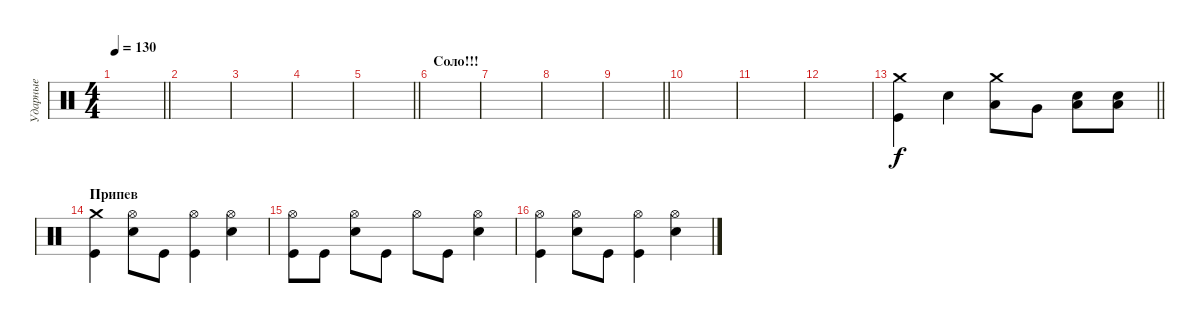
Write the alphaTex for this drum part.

\track ("Ударные" "Ударные") {instrument percussion}
\staff {score}
\articulation defaults
\ts (4 4)
\tempo 130
\clef neutral
\barLineRight lightlight
\ks c
|
|
|
|
\barLineRight lightlight
|
\section ("" "Соло!!!")
|
|
|
\barLineRight lightlight
|
|
|
|
\barLineRight lightlight
("Kick (hit)" "Crash medium (hit)").4 "Snare (hit) 2".4 ("Low Tom (hit)" "Crash medium (hit)").8 "Very Low Tom (hit)".8 ("Low Floor Tom (hit)" "Snare (hit) 2").8 ("Low Floor Tom (hit)" "Snare (hit) 2").8 |
\section ("" "Припев")
("Kick (hit)" "Crash medium (hit)").4 ("Snare (hit) 2" "Hi-Hat (open)").8 "Kick (hit)".8 ("Kick (hit)" "Hi-Hat (open)").4 ("Snare (hit) 2" "Hi-Hat (open)").4 |
("Kick (hit)" "Hi-Hat (open)").8 "Kick (hit)".8 ("Snare (hit) 2" "Hi-Hat (open)").8 "Kick (hit)".8 "Hi-Hat (open)".8 "Kick (hit)".8 ("Snare (hit) 2" "Hi-Hat (open)").4 |
("Kick (hit)" "Hi-Hat (open)").4 ("Snare (hit) 2" "Hi-Hat (open)").8 "Kick (hit)".8 ("Kick (hit)" "Hi-Hat (open)").4 ("Snare (hit) 2" "Hi-Hat (open)").4
